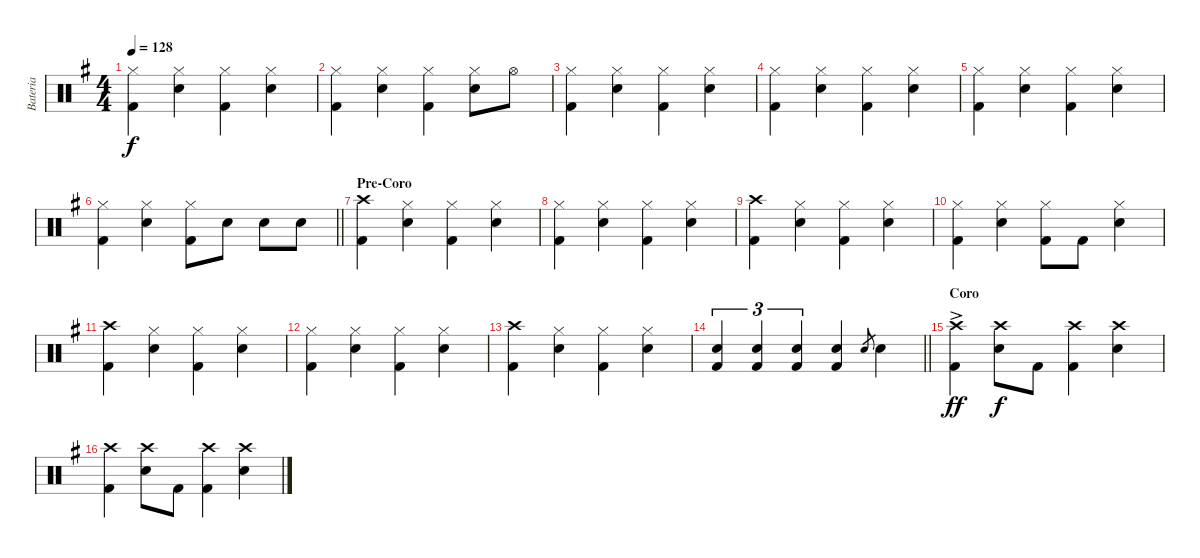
\track ("Bateria" "Bateria") {instrument percussion}
\staff {score}
\articulation defaults
\ts (4 4)
\tempo 128
\clef neutral
\ks g
("Hi-Hat (closed)" "Kick (hit) 2").4{dy f} ("Hi-Hat (closed)" "Snare (hit) 2").4 ("Hi-Hat (closed)" "Kick (hit) 2").4 ("Hi-Hat (closed)" "Snare (hit) 2").4 |
("Hi-Hat (closed)" "Kick (hit) 2").4 ("Hi-Hat (closed)" "Snare (hit) 2").4 ("Hi-Hat (closed)" "Kick (hit) 2").4 ("Hi-Hat (closed)" "Snare (hit) 2").8 "Hi-Hat (open)".8 |
("Hi-Hat (closed)" "Kick (hit) 2").4 ("Hi-Hat (closed)" "Snare (hit) 2").4 ("Hi-Hat (closed)" "Kick (hit) 2").4 ("Hi-Hat (closed)" "Snare (hit) 2").4 |
("Hi-Hat (closed)" "Kick (hit) 2").4 ("Hi-Hat (closed)" "Snare (hit) 2").4 ("Hi-Hat (closed)" "Kick (hit) 2").4 ("Hi-Hat (closed)" "Snare (hit) 2").4 |
("Hi-Hat (closed)" "Kick (hit) 2").4 ("Hi-Hat (closed)" "Snare (hit) 2").4 ("Hi-Hat (closed)" "Kick (hit) 2").4 ("Hi-Hat (closed)" "Snare (hit) 2").4 |
\barLineRight lightlight
("Hi-Hat (closed)" "Kick (hit) 2").4 ("Hi-Hat (closed)" "Snare (hit) 2").4 ("Hi-Hat (closed)" "Kick (hit) 2").8 "Snare (hit) 2".8 "Snare (hit) 2".8 "Snare (hit) 2".8 |
\section ("" "Pre-Coro")
("Crash high (hit)" "Kick (hit) 2").4 ("Hi-Hat (closed)" "Snare (hit) 2").4 ("Hi-Hat (closed)" "Kick (hit) 2").4 ("Hi-Hat (closed)" "Snare (hit) 2").4 |
("Hi-Hat (closed)" "Kick (hit) 2").4 ("Hi-Hat (closed)" "Snare (hit) 2").4 ("Hi-Hat (closed)" "Kick (hit) 2").4 ("Hi-Hat (closed)" "Snare (hit) 2").4 |
("Crash high (hit)" "Kick (hit) 2").4 ("Hi-Hat (closed)" "Snare (hit) 2").4 ("Hi-Hat (closed)" "Kick (hit) 2").4 ("Hi-Hat (closed)" "Snare (hit) 2").4 |
("Hi-Hat (closed)" "Kick (hit) 2").4 ("Hi-Hat (closed)" "Snare (hit) 2").4 ("Hi-Hat (closed)" "Kick (hit) 2").8 "Kick (hit) 2".8 ("Hi-Hat (closed)" "Snare (hit) 2").4 |
("Crash high (hit)" "Kick (hit) 2").4 ("Hi-Hat (closed)" "Snare (hit) 2").4 ("Hi-Hat (closed)" "Kick (hit) 2").4 ("Hi-Hat (closed)" "Snare (hit) 2").4 |
("Hi-Hat (closed)" "Kick (hit) 2").4 ("Hi-Hat (closed)" "Snare (hit) 2").4 ("Hi-Hat (closed)" "Kick (hit) 2").4 ("Hi-Hat (closed)" "Snare (hit) 2").4 |
("Crash high (hit)" "Kick (hit) 2").4 ("Hi-Hat (closed)" "Snare (hit) 2").4 ("Hi-Hat (closed)" "Kick (hit) 2").4 ("Hi-Hat (closed)" "Snare (hit) 2").4 |
\barLineRight lightlight
("Snare (hit) 2" "Kick (hit) 2").4{tu (3 2)} ("Snare (hit) 2" "Kick (hit) 2").4{tu (3 2)} ("Snare (hit) 2" "Kick (hit) 2").4{tu (3 2)} ("Snare (hit) 2" "Kick (hit) 2").4 "Snare (hit) 2".8{gr} "Snare (hit) 2".4 |
\section ("" "Coro")
("Crash high (hit)"{ac} "Kick (hit) 2").4{dy ff} ("Crash high (hit)" "Snare (hit) 2").8{dy f} "Kick (hit) 2".8 ("Crash high (hit)" "Kick (hit) 2").4 ("Crash high (hit)" "Snare (hit) 2").4 |
("Crash high (hit)" "Kick (hit) 2").4 ("Crash high (hit)" "Snare (hit) 2").8 "Kick (hit) 2".8 ("Crash high (hit)" "Kick (hit) 2").4 ("Crash high (hit)" "Snare (hit) 2").4
